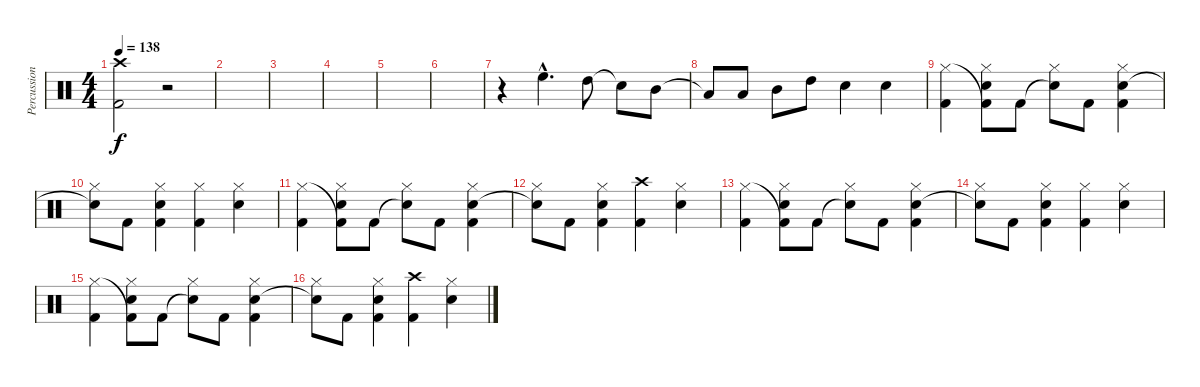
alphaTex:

\track ("Percussion" "Percussion") {instrument percussion}
\staff {score}
\articulation defaults
\ts (4 4)
\tempo 138
\clef neutral
\ks c
("Kick (hit) 2" "Crash high (hit)").2{dy f} r.2 |
|
|
|
|
|
r.4 "High Floor Tom (hit)"{hac}.4{d} "High Tom (hit)".8 "Snare (hit)"{t}.8 "Mid Tom (hit)".8 |
"Low Tom (hit)"{t}.8 "Low Tom (hit)".8 "Mid Tom (hit)".8 "High Tom (hit)".8 "Snare (hit) 2".4 "Snare (hit) 2".4 |
("Kick (hit) 2" "Hi-Hat (closed)").4 ("Snare (hit) 2" "Kick (hit) 2"{t} "Hi-Hat (closed)").8 "Kick (hit) 2".8 ("Snare (hit)"{t} "Hi-Hat (closed)").8 "Kick (hit) 2".8 ("Snare (hit) 2" "Kick (hit) 2" "Hi-Hat (closed)").4 |
("Snare (hit)"{t} "Hi-Hat (closed)").8 "Kick (hit) 2".8 ("Snare (hit) 2" "Kick (hit) 2" "Hi-Hat (closed)").4 ("Kick (hit) 2" "Hi-Hat (closed)").4 ("Snare (hit) 2" "Hi-Hat (closed)").4 |
("Kick (hit) 2" "Hi-Hat (closed)").4 ("Snare (hit) 2" "Kick (hit) 2"{t} "Hi-Hat (closed)").8 "Kick (hit) 2".8 ("Snare (hit)"{t} "Hi-Hat (closed)").8 "Kick (hit) 2".8 ("Snare (hit) 2" "Kick (hit) 2" "Hi-Hat (closed)").4 |
("Snare (hit)"{t} "Hi-Hat (closed)").8 "Kick (hit) 2".8 ("Snare (hit) 2" "Kick (hit) 2" "Hi-Hat (closed)").4 ("Kick (hit) 2" "Crash high (hit)").4 ("Snare (hit) 2" "Hi-Hat (closed)").4 |
("Kick (hit) 2" "Hi-Hat (closed)").4 ("Snare (hit) 2" "Kick (hit) 2"{t} "Hi-Hat (closed)").8 "Kick (hit) 2".8 ("Snare (hit)"{t} "Hi-Hat (closed)").8 "Kick (hit) 2".8 ("Snare (hit) 2" "Kick (hit) 2" "Hi-Hat (closed)").4 |
("Snare (hit)"{t} "Hi-Hat (closed)").8 "Kick (hit) 2".8 ("Snare (hit) 2" "Kick (hit) 2" "Hi-Hat (closed)").4 ("Kick (hit) 2" "Hi-Hat (closed)").4 ("Snare (hit) 2" "Hi-Hat (closed)").4 |
("Kick (hit) 2" "Hi-Hat (closed)").4 ("Snare (hit) 2" "Kick (hit) 2"{t} "Hi-Hat (closed)").8 "Kick (hit) 2".8 ("Snare (hit)"{t} "Hi-Hat (closed)").8 "Kick (hit) 2".8 ("Snare (hit) 2" "Kick (hit) 2" "Hi-Hat (closed)").4 |
("Snare (hit)"{t} "Hi-Hat (closed)").8 "Kick (hit) 2".8 ("Snare (hit) 2" "Kick (hit) 2" "Hi-Hat (closed)").4 ("Kick (hit) 2" "Crash high (hit)").4 ("Snare (hit) 2" "Hi-Hat (closed)").4
